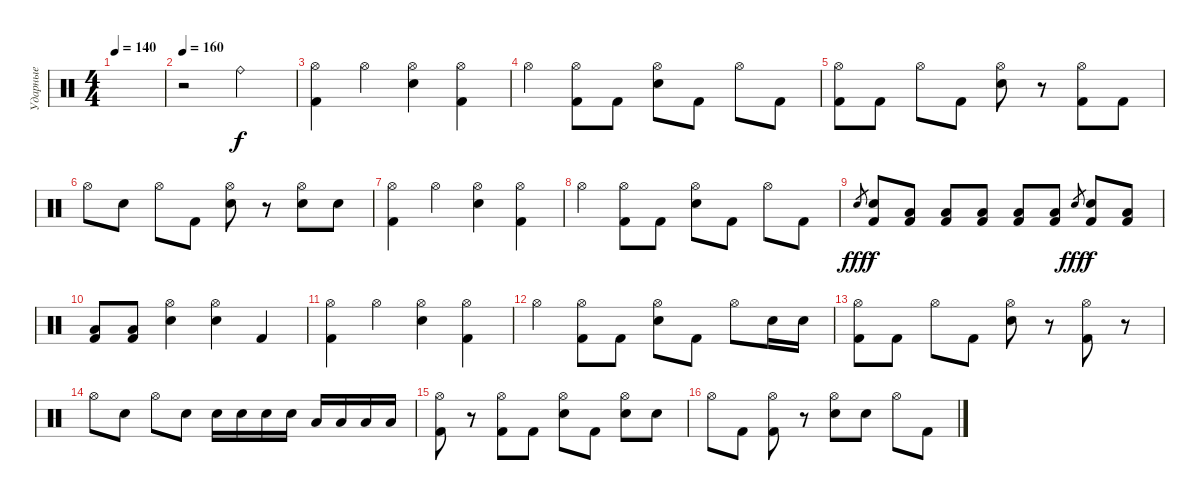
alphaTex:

\track ("Ударные" "Ударные") {instrument percussion}
\staff {score}
\articulation defaults
\ts (4 4)
\tempo 140
\clef neutral
\ks c
|
\tempo 160
r.2 "Ride (bell)".2 |
("Hi-Hat (open)" "Kick (hit) 2").4 "Hi-Hat (open)".4 ("Hi-Hat (open)" "Electric Snare (hit)").4 ("Hi-Hat (open)" "Kick (hit) 2").4 |
"Hi-Hat (open)".4 ("Hi-Hat (open)" "Kick (hit) 2").8 "Kick (hit) 2".8 ("Hi-Hat (open)" "Electric Snare (hit)").8 "Kick (hit) 2".8 "Hi-Hat (open)".8 "Kick (hit) 2".8 |
("Hi-Hat (open)" "Kick (hit) 2").8 "Kick (hit) 2".8 "Hi-Hat (open)".8 "Kick (hit) 2".8 ("Hi-Hat (open)" "Electric Snare (hit)").8 r.8 ("Hi-Hat (open)" "Kick (hit) 2").8 "Kick (hit) 2".8 |
"Hi-Hat (open)".8 "Electric Snare (hit)".8 "Hi-Hat (open)".8 "Kick (hit) 2".8 ("Hi-Hat (open)" "Electric Snare (hit)").8 r.8 ("Hi-Hat (open)" "Electric Snare (hit)").8 "Electric Snare (hit)".8 |
("Hi-Hat (open)" "Kick (hit) 2").4 "Hi-Hat (open)".4 ("Hi-Hat (open)" "Electric Snare (hit)").4 ("Hi-Hat (open)" "Kick (hit) 2").4 |
"Hi-Hat (open)".4 ("Hi-Hat (open)" "Kick (hit) 2").8 "Kick (hit) 2".8 ("Hi-Hat (open)" "Electric Snare (hit)").8 "Kick (hit) 2".8 "Hi-Hat (open)".8 "Kick (hit) 2".8 |
"Electric Snare (hit)".8{gr dy fff} ("Electric Snare (hit)" "Kick (hit) 2").8{dy f} ("Low Tom (hit)" "Kick (hit) 2").8 ("Low Tom (hit)" "Kick (hit) 2").8 ("Low Tom (hit)" "Kick (hit) 2").8 ("Low Tom (hit)" "Kick (hit) 2").8 ("Low Tom (hit)" "Kick (hit) 2").8 "Electric Snare (hit)".8{gr dy fff} ("Electric Snare (hit)" "Kick (hit) 2").8{dy f} ("Low Tom (hit)" "Kick (hit) 2").8 |
("Low Tom (hit)" "Kick (hit) 2").8 ("Low Tom (hit)" "Kick (hit) 2").8 ("Hi-Hat (open)" "Electric Snare (hit)").4 ("Hi-Hat (open)" "Electric Snare (hit)").4 "Kick (hit) 2".4 |
("Hi-Hat (open)" "Kick (hit) 2").4 "Hi-Hat (open)".4 ("Hi-Hat (open)" "Electric Snare (hit)").4 ("Hi-Hat (open)" "Kick (hit) 2").4 |
"Hi-Hat (open)".4 ("Hi-Hat (open)" "Kick (hit) 2").8 "Kick (hit) 2".8 ("Hi-Hat (open)" "Electric Snare (hit)").8 "Kick (hit) 2".8 "Hi-Hat (open)".8 "Electric Snare (hit)".16 "Electric Snare (hit)".16 |
("Hi-Hat (open)" "Kick (hit) 2").8 "Kick (hit) 2".8 "Hi-Hat (open)".8 "Kick (hit) 2".8 ("Hi-Hat (open)" "Electric Snare (hit)").8 r.8 ("Hi-Hat (open)" "Kick (hit) 2").8 r.8 |
"Hi-Hat (open)".8 "Electric Snare (hit)".8 "Hi-Hat (open)".8 "Electric Snare (hit)".8 "Electric Snare (hit)".16 "Electric Snare (hit)".16 "Electric Snare (hit)".16 "Electric Snare (hit)".16 "Low Tom (hit)".16 "Low Tom (hit)".16 "Low Tom (hit)".16 "Low Tom (hit)".16 |
("Hi-Hat (open)" "Kick (hit) 2").8 r.8 ("Hi-Hat (open)" "Kick (hit) 2").8 "Kick (hit) 2".8 ("Hi-Hat (open)" "Electric Snare (hit)").8 "Kick (hit) 2".8 ("Hi-Hat (open)" "Electric Snare (hit)").8 "Electric Snare (hit)".8 |
"Hi-Hat (open)".8 "Kick (hit) 2".8 ("Hi-Hat (open)" "Kick (hit) 2").8 r.8 ("Hi-Hat (open)" "Electric Snare (hit)").8 "Electric Snare (hit)".8 "Hi-Hat (open)".8 "Kick (hit) 2".8
